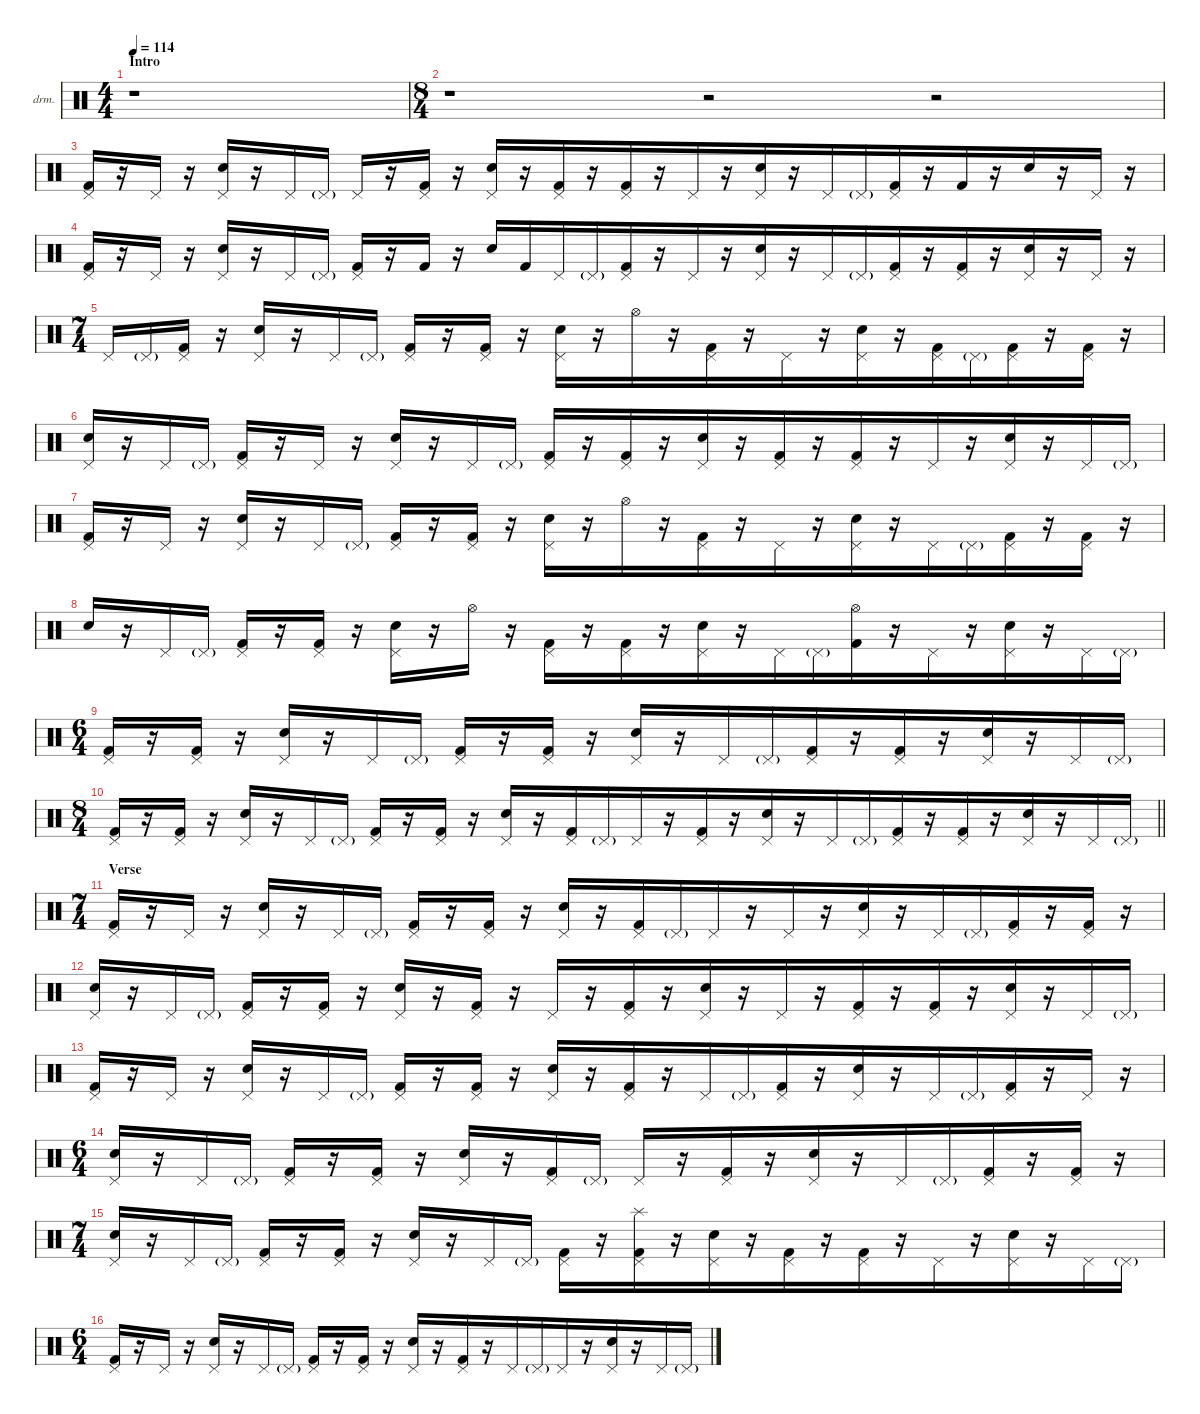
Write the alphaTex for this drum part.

\defaultSystemsLayout 4
\hideDynamics
\bracketExtendMode nobrackets
\firstSystemTrackNameOrientation horizontal
\otherSystemsTrackNameOrientation horizontal
\track ("Drums" "drm.") {instrument percussion}
\staff {score}
\articulation defaults
\ts (4 4)
\beaming (8 2 2 2 2)
\section ("" "Intro")
\tempo 114
\clef neutral
\ks c
r.1{dy f beam Down} |
\ts (8 4)
\beaming (8 2 2 2 10)
r.1{beam Down} r.2{beam Down} r.2{beam Down} |
("Pedal Hi-Hat (hit)" "Kick (hit) 2").16{beam Up} r.16{beam Up} "Pedal Hi-Hat (hit)".16{beam Up} r.16{beam Up} ("Pedal Hi-Hat (hit)" "Snare (hit) 2").16{beam Up} r.16{beam Up} "Pedal Hi-Hat (hit)".16{beam Up} "Pedal Hi-Hat (hit)"{g}.16{dy mf beam Up} "Pedal Hi-Hat (hit)".16{dy f beam Up} r.16{beam Up} ("Pedal Hi-Hat (hit)" "Kick (hit) 2").16{beam Up} r.16{beam Up} ("Pedal Hi-Hat (hit)" "Snare (hit) 2").16{beam Up} r.16{beam Up} ("Pedal Hi-Hat (hit)" "Kick (hit) 2").16{beam Up} r.16{beam Up} ("Pedal Hi-Hat (hit)" "Kick (hit) 2").16{beam Up} r.16{beam Up} "Pedal Hi-Hat (hit)".16{beam Up} r.16{beam Up} ("Pedal Hi-Hat (hit)" "Snare (hit) 2").16{beam Up} r.16{beam Up} "Pedal Hi-Hat (hit)".16{beam Up} "Pedal Hi-Hat (hit)"{g}.16{dy mf beam Up} ("Pedal Hi-Hat (hit)" "Kick (hit) 2").16{dy f beam Up} r.16{beam Up} "Kick (hit) 2".16{beam Up} r.16{beam Up} "Snare (hit) 2".16{beam Up} r.16{beam Up} "Pedal Hi-Hat (hit)".16{beam Up} r.16{beam Up} |
("Pedal Hi-Hat (hit)" "Kick (hit) 2").16{beam Up} r.16{beam Up} "Pedal Hi-Hat (hit)".16{beam Up} r.16{beam Up} ("Pedal Hi-Hat (hit)" "Snare (hit) 2").16{beam Up} r.16{beam Up} "Pedal Hi-Hat (hit)".16{beam Up} "Pedal Hi-Hat (hit)"{g}.16{dy mf beam Up} ("Pedal Hi-Hat (hit)" "Kick (hit) 2").16{dy f beam Up} r.16{beam Up} "Kick (hit) 2".16{beam Up} r.16{beam Up} "Snare (hit) 2".16{beam Up} "Kick (hit) 2".16{beam Up} "Pedal Hi-Hat (hit)".16{beam Up} "Pedal Hi-Hat (hit)"{g}.16{dy mf beam Up} ("Pedal Hi-Hat (hit)" "Kick (hit) 2").16{dy f beam Up} r.16{beam Up} "Pedal Hi-Hat (hit)".16{beam Up} r.16{beam Up} ("Pedal Hi-Hat (hit)" "Snare (hit) 2").16{beam Up} r.16{beam Up} "Pedal Hi-Hat (hit)".16{beam Up} "Pedal Hi-Hat (hit)"{g}.16{dy mf beam Up} ("Pedal Hi-Hat (hit)" "Kick (hit) 2").16{dy f beam Up} r.16{beam Up} ("Pedal Hi-Hat (hit)" "Kick (hit) 2").16{beam Up} r.16{beam Up} ("Pedal Hi-Hat (hit)" "Snare (hit) 2").16{beam Up} r.16{beam Up} "Pedal Hi-Hat (hit)".16{beam Up} r.16{beam Up} |
\ts (7 4)
\beaming (8 2 2 2 8)
"Pedal Hi-Hat (hit)".16{beam Up} "Pedal Hi-Hat (hit)"{g}.16{dy mf beam Up} ("Pedal Hi-Hat (hit)" "Kick (hit) 2").16{dy f beam Up} r.16{beam Up} ("Pedal Hi-Hat (hit)" "Snare (hit) 2").16{beam Up} r.16{beam Up} "Pedal Hi-Hat (hit)".16{beam Up} "Pedal Hi-Hat (hit)"{g}.16{dy mf beam Up} ("Pedal Hi-Hat (hit)" "Kick (hit) 2").16{dy f beam Up} r.16{beam Up} ("Pedal Hi-Hat (hit)" "Kick (hit) 2").16{beam Up} r.16{beam Up} ("Pedal Hi-Hat (hit)" "Snare (hit) 2").16{beam Down} r.16{beam Down} "Hi-Hat (open)".16{beam Down} r.16{beam Down} ("Pedal Hi-Hat (hit)" "Kick (hit) 2").16{beam Down} r.16{beam Down} "Pedal Hi-Hat (hit)".16{beam Down} r.16{beam Down} ("Pedal Hi-Hat (hit)" "Snare (hit) 2").16{beam Down} r.16{beam Down} ("Pedal Hi-Hat (hit)" "Kick (hit) 2").16{beam Down} "Pedal Hi-Hat (hit)"{g}.16{dy mf beam Down} ("Pedal Hi-Hat (hit)" "Kick (hit) 2").16{dy f beam Down} r.16{beam Down} ("Pedal Hi-Hat (hit)" "Kick (hit) 2").16{beam Down} r.16{beam Down} |
("Pedal Hi-Hat (hit)" "Snare (hit) 2").16{beam Up} r.16{beam Up} "Pedal Hi-Hat (hit)".16{beam Up} "Pedal Hi-Hat (hit)"{g}.16{dy mf beam Up} ("Pedal Hi-Hat (hit)" "Kick (hit) 2").16{dy f beam Up} r.16{beam Up} "Pedal Hi-Hat (hit)".16{beam Up} r.16{beam Up} ("Pedal Hi-Hat (hit)" "Snare (hit) 2").16{beam Up} r.16{beam Up} "Pedal Hi-Hat (hit)".16{beam Up} "Pedal Hi-Hat (hit)"{g}.16{dy mf beam Up} ("Pedal Hi-Hat (hit)" "Kick (hit) 2").16{dy f beam Up} r.16{beam Up} ("Pedal Hi-Hat (hit)" "Kick (hit) 2").16{beam Up} r.16{beam Up} ("Pedal Hi-Hat (hit)" "Snare (hit) 2").16{beam Up} r.16{beam Up} ("Pedal Hi-Hat (hit)" "Kick (hit) 2").16{beam Up} r.16{beam Up} ("Pedal Hi-Hat (hit)" "Kick (hit) 2").16{beam Up} r.16{beam Up} "Pedal Hi-Hat (hit)".16{beam Up} r.16{beam Up} ("Pedal Hi-Hat (hit)" "Snare (hit) 2").16{beam Up} r.16{beam Up} "Pedal Hi-Hat (hit)".16{beam Up} "Pedal Hi-Hat (hit)"{g}.16{dy mf beam Up} |
("Pedal Hi-Hat (hit)" "Kick (hit) 2").16{dy f beam Up} r.16{beam Up} "Pedal Hi-Hat (hit)".16{beam Up} r.16{beam Up} ("Pedal Hi-Hat (hit)" "Snare (hit) 2").16{beam Up} r.16{beam Up} "Pedal Hi-Hat (hit)".16{beam Up} "Pedal Hi-Hat (hit)"{g}.16{dy mf beam Up} ("Pedal Hi-Hat (hit)" "Kick (hit) 2").16{dy f beam Up} r.16{beam Up} ("Pedal Hi-Hat (hit)" "Kick (hit) 2").16{beam Up} r.16{beam Up} ("Pedal Hi-Hat (hit)" "Snare (hit) 2").16{beam Down} r.16{beam Down} "Hi-Hat (open)".16{beam Down} r.16{beam Down} ("Pedal Hi-Hat (hit)" "Kick (hit) 2").16{beam Down} r.16{beam Down} "Pedal Hi-Hat (hit)".16{beam Down} r.16{beam Down} ("Pedal Hi-Hat (hit)" "Snare (hit) 2").16{beam Down} r.16{beam Down} "Pedal Hi-Hat (hit)".16{beam Down} "Pedal Hi-Hat (hit)"{g}.16{dy mf beam Down} ("Pedal Hi-Hat (hit)" "Kick (hit) 2").16{dy f beam Down} r.16{beam Down} ("Pedal Hi-Hat (hit)" "Kick (hit) 2").16{beam Down} r.16{beam Down} |
"Snare (hit) 2".16{beam Up} r.16{beam Up} "Pedal Hi-Hat (hit)".16{beam Up} "Pedal Hi-Hat (hit)"{g}.16{dy mf beam Up} ("Pedal Hi-Hat (hit)" "Kick (hit) 2").16{dy f beam Up} r.16{beam Up} ("Pedal Hi-Hat (hit)" "Kick (hit) 2").16{beam Up} r.16{beam Up} ("Pedal Hi-Hat (hit)" "Snare (hit) 2").16{beam Down} r.16{beam Down} "Hi-Hat (open)".16{beam Down} r.16{beam Down} ("Pedal Hi-Hat (hit)" "Kick (hit) 2").16{beam Down} r.16{beam Down} ("Pedal Hi-Hat (hit)" "Kick (hit) 2").16{beam Down} r.16{beam Down} ("Pedal Hi-Hat (hit)" "Snare (hit) 2").16{beam Down} r.16{beam Down} "Pedal Hi-Hat (hit)".16{beam Down} "Pedal Hi-Hat (hit)"{g}.16{dy mf beam Down} ("Hi-Hat (open)" "Kick (hit) 2").16{dy f beam Down} r.16{beam Down} "Pedal Hi-Hat (hit)".16{beam Down} r.16{beam Down} ("Pedal Hi-Hat (hit)" "Snare (hit) 2").16{beam Down} r.16{beam Down} "Pedal Hi-Hat (hit)".16{beam Down} "Pedal Hi-Hat (hit)"{g}.16{dy mf beam Down} |
\ts (6 4)
\beaming (8 2 2 2 6)
("Pedal Hi-Hat (hit)" "Kick (hit) 2").16{dy f beam Up} r.16{beam Up} ("Pedal Hi-Hat (hit)" "Kick (hit) 2").16{beam Up} r.16{beam Up} ("Pedal Hi-Hat (hit)" "Snare (hit) 2").16{beam Up} r.16{beam Up} "Pedal Hi-Hat (hit)".16{beam Up} "Pedal Hi-Hat (hit)"{g}.16{dy mf beam Up} ("Pedal Hi-Hat (hit)" "Kick (hit) 2").16{dy f beam Up} r.16{beam Up} ("Pedal Hi-Hat (hit)" "Kick (hit) 2").16{beam Up} r.16{beam Up} ("Pedal Hi-Hat (hit)" "Snare (hit) 2").16{beam Up} r.16{beam Up} "Pedal Hi-Hat (hit)".16{beam Up} "Pedal Hi-Hat (hit)"{g}.16{dy mf beam Up} ("Pedal Hi-Hat (hit)" "Kick (hit) 2").16{dy f beam Up} r.16{beam Up} ("Pedal Hi-Hat (hit)" "Kick (hit) 2").16{beam Up} r.16{beam Up} ("Pedal Hi-Hat (hit)" "Snare (hit) 2").16{beam Up} r.16{beam Up} "Pedal Hi-Hat (hit)".16{beam Up} "Pedal Hi-Hat (hit)"{g}.16{dy mf beam Up} |
\ts (8 4)
\beaming (8 2 2 2 10)
\barLineRight lightlight
("Pedal Hi-Hat (hit)" "Kick (hit) 2").16{dy f beam Up} r.16{beam Up} ("Pedal Hi-Hat (hit)" "Kick (hit) 2").16{beam Up} r.16{beam Up} ("Pedal Hi-Hat (hit)" "Snare (hit) 2").16{beam Up} r.16{beam Up} "Pedal Hi-Hat (hit)".16{beam Up} "Pedal Hi-Hat (hit)"{g}.16{dy mf beam Up} ("Pedal Hi-Hat (hit)" "Kick (hit) 2").16{dy f beam Up} r.16{beam Up} ("Pedal Hi-Hat (hit)" "Kick (hit) 2").16{beam Up} r.16{beam Up} ("Pedal Hi-Hat (hit)" "Snare (hit) 2").16{beam Up} r.16{beam Up} ("Pedal Hi-Hat (hit)" "Kick (hit) 2").16{beam Up} "Pedal Hi-Hat (hit)"{g}.16{dy mf beam Up} "Pedal Hi-Hat (hit)".16{dy f beam Up} r.16{beam Up} ("Pedal Hi-Hat (hit)" "Kick (hit) 2").16{beam Up} r.16{beam Up} ("Pedal Hi-Hat (hit)" "Snare (hit) 2").16{beam Up} r.16{beam Up} "Pedal Hi-Hat (hit)".16{beam Up} "Pedal Hi-Hat (hit)"{g}.16{dy mf beam Up} ("Pedal Hi-Hat (hit)" "Kick (hit) 2").16{dy f beam Up} r.16{beam Up} ("Pedal Hi-Hat (hit)" "Kick (hit) 2").16{beam Up} r.16{beam Up} ("Pedal Hi-Hat (hit)" "Snare (hit) 2").16{beam Up} r.16{beam Up} "Pedal Hi-Hat (hit)".16{beam Up} "Pedal Hi-Hat (hit)"{g}.16{dy mf beam Up} |
\ts (7 4)
\beaming (8 2 2 2 8)
\section ("" "Verse")
("Pedal Hi-Hat (hit)" "Kick (hit) 2").16{dy f beam Up} r.16{beam Up} "Pedal Hi-Hat (hit)".16{beam Up} r.16{beam Up} ("Pedal Hi-Hat (hit)" "Snare (hit) 2").16{beam Up} r.16{beam Up} "Pedal Hi-Hat (hit)".16{beam Up} "Pedal Hi-Hat (hit)"{g}.16{dy mf beam Up} ("Pedal Hi-Hat (hit)" "Kick (hit) 2").16{dy f beam Up} r.16{beam Up} ("Pedal Hi-Hat (hit)" "Kick (hit) 2").16{beam Up} r.16{beam Up} ("Pedal Hi-Hat (hit)" "Snare (hit) 2").16{beam Up} r.16{beam Up} ("Pedal Hi-Hat (hit)" "Kick (hit) 2").16{beam Up} "Pedal Hi-Hat (hit)"{g}.16{dy mf beam Up} "Pedal Hi-Hat (hit)".16{dy f beam Up} r.16{beam Up} "Pedal Hi-Hat (hit)".16{beam Up} r.16{beam Up} ("Pedal Hi-Hat (hit)" "Snare (hit) 2").16{beam Up} r.16{beam Up} "Pedal Hi-Hat (hit)".16{beam Up} "Pedal Hi-Hat (hit)"{g}.16{dy mf beam Up} ("Pedal Hi-Hat (hit)" "Kick (hit) 2").16{dy f beam Up} r.16{beam Up} ("Pedal Hi-Hat (hit)" "Kick (hit) 2").16{beam Up} r.16{beam Up} |
("Pedal Hi-Hat (hit)" "Snare (hit) 2").16{beam Up} r.16{beam Up} "Pedal Hi-Hat (hit)".16{beam Up} "Pedal Hi-Hat (hit)"{g}.16{dy mf beam Up} ("Pedal Hi-Hat (hit)" "Kick (hit) 2").16{dy f beam Up} r.16{beam Up} ("Pedal Hi-Hat (hit)" "Kick (hit) 2").16{beam Up} r.16{beam Up} ("Pedal Hi-Hat (hit)" "Snare (hit) 2").16{beam Up} r.16{beam Up} ("Pedal Hi-Hat (hit)" "Kick (hit) 2").16{beam Up} r.16{beam Up} "Pedal Hi-Hat (hit)".16{beam Up} r.16{beam Up} ("Pedal Hi-Hat (hit)" "Kick (hit) 2").16{beam Up} r.16{beam Up} ("Pedal Hi-Hat (hit)" "Snare (hit) 2").16{beam Up} r.16{beam Up} "Pedal Hi-Hat (hit)".16{beam Up} r.16{beam Up} ("Pedal Hi-Hat (hit)" "Kick (hit) 2").16{beam Up} r.16{beam Up} ("Pedal Hi-Hat (hit)" "Kick (hit) 2").16{beam Up} r.16{beam Up} ("Pedal Hi-Hat (hit)" "Snare (hit) 2").16{beam Up} r.16{beam Up} "Pedal Hi-Hat (hit)".16{beam Up} "Pedal Hi-Hat (hit)"{g}.16{dy mf beam Up} |
("Pedal Hi-Hat (hit)" "Kick (hit) 2").16{dy f beam Up} r.16{beam Up} "Pedal Hi-Hat (hit)".16{beam Up} r.16{beam Up} ("Pedal Hi-Hat (hit)" "Snare (hit) 2").16{beam Up} r.16{beam Up} "Pedal Hi-Hat (hit)".16{beam Up} "Pedal Hi-Hat (hit)"{g}.16{dy mf beam Up} ("Pedal Hi-Hat (hit)" "Kick (hit) 2").16{dy f beam Up} r.16{beam Up} ("Pedal Hi-Hat (hit)" "Kick (hit) 2").16{beam Up} r.16{beam Up} ("Pedal Hi-Hat (hit)" "Snare (hit) 2").16{beam Up} r.16{beam Up} ("Pedal Hi-Hat (hit)" "Kick (hit) 2").16{beam Up} r.16{beam Up} "Pedal Hi-Hat (hit)".16{beam Up} "Pedal Hi-Hat (hit)"{g}.16{dy mf beam Up} ("Pedal Hi-Hat (hit)" "Kick (hit) 2").16{dy f beam Up} r.16{beam Up} ("Pedal Hi-Hat (hit)" "Snare (hit) 2").16{beam Up} r.16{beam Up} "Pedal Hi-Hat (hit)".16{beam Up} "Pedal Hi-Hat (hit)"{g}.16{dy mf beam Up} ("Pedal Hi-Hat (hit)" "Kick (hit) 2").16{dy f beam Up} r.16{beam Up} "Pedal Hi-Hat (hit)".16{beam Up} r.16{beam Up} |
\ts (6 4)
\beaming (8 2 2 2 6)
("Pedal Hi-Hat (hit)" "Snare (hit) 2").16{beam Up} r.16{beam Up} "Pedal Hi-Hat (hit)".16{beam Up} "Pedal Hi-Hat (hit)"{g}.16{dy mf beam Up} ("Pedal Hi-Hat (hit)" "Kick (hit) 2").16{dy f beam Up} r.16{beam Up} ("Pedal Hi-Hat (hit)" "Kick (hit) 2").16{beam Up} r.16{beam Up} ("Pedal Hi-Hat (hit)" "Snare (hit) 2").16{beam Up} r.16{beam Up} ("Pedal Hi-Hat (hit)" "Kick (hit) 2").16{beam Up} "Pedal Hi-Hat (hit)"{g}.16{dy mf beam Up} "Pedal Hi-Hat (hit)".16{dy f beam Up} r.16{beam Up} ("Pedal Hi-Hat (hit)" "Kick (hit) 2").16{beam Up} r.16{beam Up} ("Pedal Hi-Hat (hit)" "Snare (hit) 2").16{beam Up} r.16{beam Up} "Pedal Hi-Hat (hit)".16{beam Up} "Pedal Hi-Hat (hit)"{g}.16{dy mf beam Up} ("Pedal Hi-Hat (hit)" "Kick (hit) 2").16{dy f beam Up} r.16{beam Up} ("Pedal Hi-Hat (hit)" "Kick (hit) 2").16{beam Up} r.16{beam Up} |
\ts (7 4)
\beaming (8 2 2 2 8)
("Pedal Hi-Hat (hit)" "Snare (hit) 2").16{beam Up} r.16{beam Up} "Pedal Hi-Hat (hit)".16{beam Up} "Pedal Hi-Hat (hit)"{g}.16{dy mf beam Up} ("Pedal Hi-Hat (hit)" "Kick (hit) 2").16{dy f beam Up} r.16{beam Up} ("Pedal Hi-Hat (hit)" "Kick (hit) 2").16{beam Up} r.16{beam Up} ("Pedal Hi-Hat (hit)" "Snare (hit) 2").16{beam Up} r.16{beam Up} "Pedal Hi-Hat (hit)".16{beam Up} "Pedal Hi-Hat (hit)"{g}.16{dy mf beam Up} ("Pedal Hi-Hat (hit)" "Kick (hit) 2").16{dy f beam Down} r.16{beam Down} ("Splash (hit)" "Pedal Hi-Hat (hit)" "Kick (hit) 2").16{beam Down} r.16{beam Down} ("Pedal Hi-Hat (hit)" "Snare (hit) 2").16{beam Down} r.16{beam Down} ("Pedal Hi-Hat (hit)" "Kick (hit) 2").16{beam Down} r.16{beam Down} ("Pedal Hi-Hat (hit)" "Kick (hit) 2").16{beam Down} r.16{beam Down} "Pedal Hi-Hat (hit)".16{beam Down} r.16{beam Down} ("Pedal Hi-Hat (hit)" "Snare (hit) 2").16{beam Down} r.16{beam Down} "Pedal Hi-Hat (hit)".16{beam Down} "Pedal Hi-Hat (hit)"{g}.16{dy mf beam Down} |
\ts (6 4)
\beaming (8 2 2 2 6)
("Pedal Hi-Hat (hit)" "Kick (hit) 2").16{dy f beam Up} r.16{beam Up} "Pedal Hi-Hat (hit)".16{beam Up} r.16{beam Up} ("Pedal Hi-Hat (hit)" "Snare (hit) 2").16{beam Up} r.16{beam Up} "Pedal Hi-Hat (hit)".16{beam Up} "Pedal Hi-Hat (hit)"{g}.16{dy mf beam Up} ("Pedal Hi-Hat (hit)" "Kick (hit) 2").16{dy f beam Up} r.16{beam Up} ("Pedal Hi-Hat (hit)" "Kick (hit) 2").16{beam Up} r.16{beam Up} ("Pedal Hi-Hat (hit)" "Snare (hit) 2").16{beam Up} r.16{beam Up} ("Pedal Hi-Hat (hit)" "Kick (hit) 2").16{beam Up} r.16{beam Up} "Pedal Hi-Hat (hit)".16{beam Up} "Pedal Hi-Hat (hit)"{g}.16{dy mf beam Up} "Pedal Hi-Hat (hit)".16{dy f beam Up} r.16{beam Up} ("Pedal Hi-Hat (hit)" "Snare (hit) 2").16{beam Up} r.16{beam Up} "Pedal Hi-Hat (hit)".16{beam Up} "Pedal Hi-Hat (hit)"{g}.16{dy mf beam Up}
